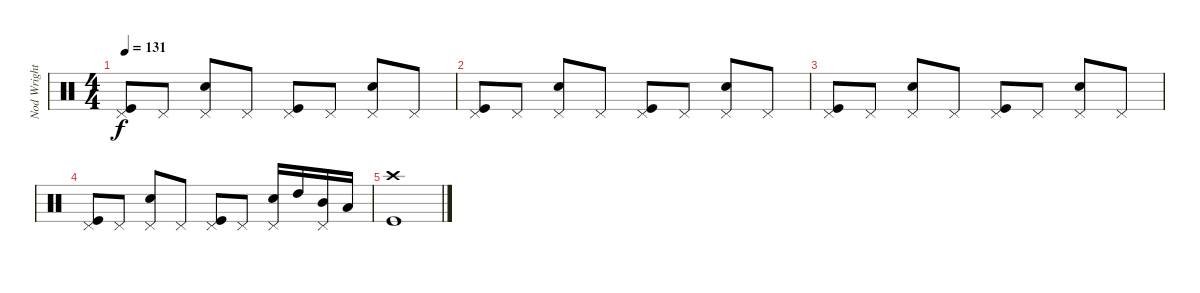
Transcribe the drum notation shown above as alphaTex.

\track ("Nod Wright" "Nod Wright") {instrument percussion}
\staff {score}
\articulation defaults
\ts (4 4)
\tempo 131
\clef neutral
\ks c
("Pedal Hi-Hat (hit)" "Kick (hit)").8{dy f} "Pedal Hi-Hat (hit)".8 ("Pedal Hi-Hat (hit)" "Snare (hit) 2").8 "Pedal Hi-Hat (hit)".8 ("Pedal Hi-Hat (hit)" "Kick (hit)").8 "Pedal Hi-Hat (hit)".8 ("Pedal Hi-Hat (hit)" "Snare (hit) 2").8 "Pedal Hi-Hat (hit)".8 |
("Pedal Hi-Hat (hit)" "Kick (hit)").8 "Pedal Hi-Hat (hit)".8 ("Pedal Hi-Hat (hit)" "Snare (hit) 2").8 "Pedal Hi-Hat (hit)".8 ("Pedal Hi-Hat (hit)" "Kick (hit)").8 "Pedal Hi-Hat (hit)".8 ("Pedal Hi-Hat (hit)" "Snare (hit) 2").8 "Pedal Hi-Hat (hit)".8 |
("Pedal Hi-Hat (hit)" "Kick (hit)").8 "Pedal Hi-Hat (hit)".8 ("Pedal Hi-Hat (hit)" "Snare (hit) 2").8 "Pedal Hi-Hat (hit)".8 ("Pedal Hi-Hat (hit)" "Kick (hit)").8 "Pedal Hi-Hat (hit)".8 ("Pedal Hi-Hat (hit)" "Snare (hit) 2").8 "Pedal Hi-Hat (hit)".8 |
("Pedal Hi-Hat (hit)" "Kick (hit)").8 "Pedal Hi-Hat (hit)".8 ("Pedal Hi-Hat (hit)" "Snare (hit) 2").8 "Pedal Hi-Hat (hit)".8 ("Pedal Hi-Hat (hit)" "Kick (hit)").8 "Pedal Hi-Hat (hit)".8 ("Pedal Hi-Hat (hit)" "Snare (hit) 2").16 "High Tom (hit)".16 ("Pedal Hi-Hat (hit)" "Mid Tom (hit)").16 "Low Tom (hit)".16 |
("Crash high (hit)" "Kick (hit)").1
